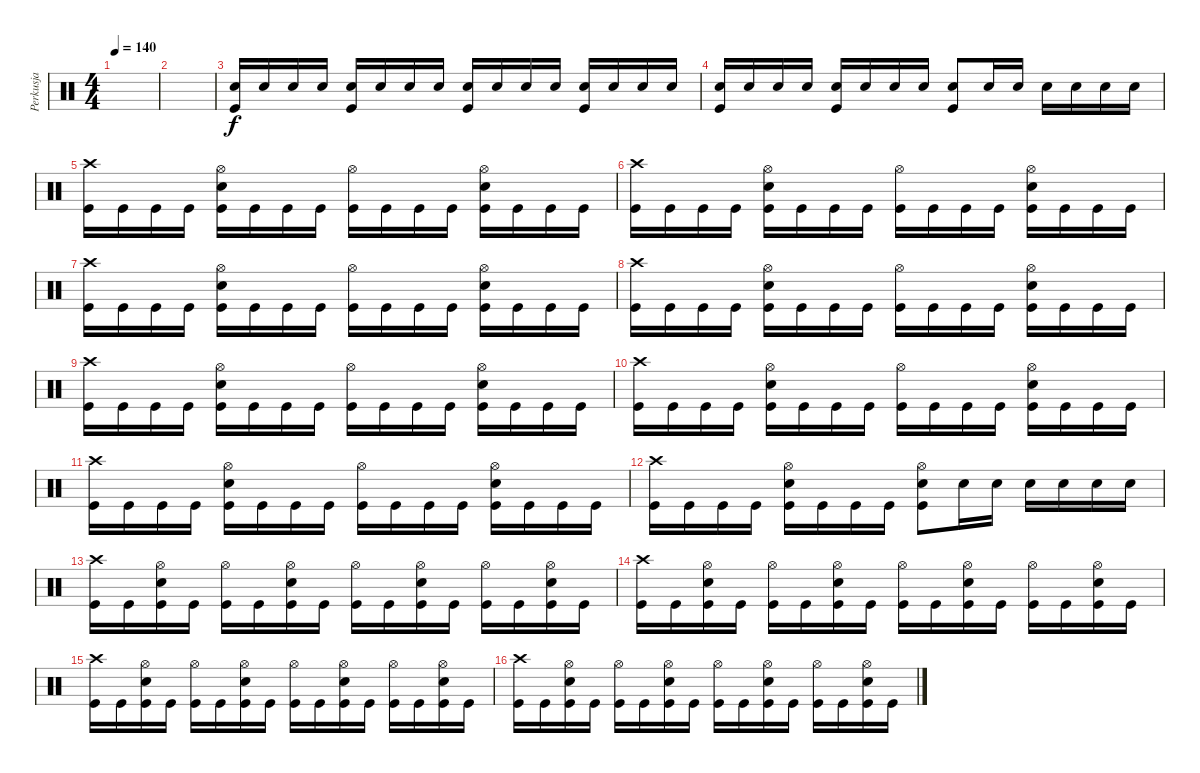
\track ("Perkusja" "Perkusja") {instrument percussion}
\staff {score}
\articulation defaults
\ts (4 4)
\tempo 140
\clef neutral
\ks c
|
|
("Electric Snare (hit)" "Kick (hit)").16 "Electric Snare (hit)".16 "Electric Snare (hit)".16 "Electric Snare (hit)".16 ("Electric Snare (hit)" "Kick (hit)").16 "Electric Snare (hit)".16 "Electric Snare (hit)".16 "Electric Snare (hit)".16 ("Electric Snare (hit)" "Kick (hit)").16 "Electric Snare (hit)".16 "Electric Snare (hit)".16 "Electric Snare (hit)".16 ("Electric Snare (hit)" "Kick (hit)").16 "Electric Snare (hit)".16 "Electric Snare (hit)".16 "Electric Snare (hit)".16 |
("Electric Snare (hit)" "Kick (hit)").16 "Electric Snare (hit)".16 "Electric Snare (hit)".16 "Electric Snare (hit)".16 ("Electric Snare (hit)" "Kick (hit)").16 "Electric Snare (hit)".16 "Electric Snare (hit)".16 "Electric Snare (hit)".16 ("Electric Snare (hit)" "Kick (hit)").8 "Electric Snare (hit)".16 "Electric Snare (hit)".16 "Electric Snare (hit)".16 "Electric Snare (hit)".16 "Electric Snare (hit)".16 "Electric Snare (hit)".16 |
("Crash high (hit)" "Kick (hit)").16 "Kick (hit)".16 "Kick (hit)".16 "Kick (hit)".16 ("Hi-Hat (open)" "Electric Snare (hit)" "Kick (hit)").16 "Kick (hit)".16 "Kick (hit)".16 "Kick (hit)".16 ("Hi-Hat (open)" "Kick (hit)").16 "Kick (hit)".16 "Kick (hit)".16 "Kick (hit)".16 ("Hi-Hat (open)" "Electric Snare (hit)" "Kick (hit)").16 "Kick (hit)".16 "Kick (hit)".16 "Kick (hit)".16 |
("Crash high (hit)" "Kick (hit)").16 "Kick (hit)".16 "Kick (hit)".16 "Kick (hit)".16 ("Hi-Hat (open)" "Electric Snare (hit)" "Kick (hit)").16 "Kick (hit)".16 "Kick (hit)".16 "Kick (hit)".16 ("Hi-Hat (open)" "Kick (hit)").16 "Kick (hit)".16 "Kick (hit)".16 "Kick (hit)".16 ("Hi-Hat (open)" "Electric Snare (hit)" "Kick (hit)").16 "Kick (hit)".16 "Kick (hit)".16 "Kick (hit)".16 |
("Crash high (hit)" "Kick (hit)").16 "Kick (hit)".16 "Kick (hit)".16 "Kick (hit)".16 ("Hi-Hat (open)" "Electric Snare (hit)" "Kick (hit)").16 "Kick (hit)".16 "Kick (hit)".16 "Kick (hit)".16 ("Hi-Hat (open)" "Kick (hit)").16 "Kick (hit)".16 "Kick (hit)".16 "Kick (hit)".16 ("Hi-Hat (open)" "Electric Snare (hit)" "Kick (hit)").16 "Kick (hit)".16 "Kick (hit)".16 "Kick (hit)".16 |
("Crash high (hit)" "Kick (hit)").16 "Kick (hit)".16 "Kick (hit)".16 "Kick (hit)".16 ("Hi-Hat (open)" "Electric Snare (hit)" "Kick (hit)").16 "Kick (hit)".16 "Kick (hit)".16 "Kick (hit)".16 ("Hi-Hat (open)" "Kick (hit)").16 "Kick (hit)".16 "Kick (hit)".16 "Kick (hit)".16 ("Hi-Hat (open)" "Electric Snare (hit)" "Kick (hit)").16 "Kick (hit)".16 "Kick (hit)".16 "Kick (hit)".16 |
("Crash high (hit)" "Kick (hit)").16 "Kick (hit)".16 "Kick (hit)".16 "Kick (hit)".16 ("Hi-Hat (open)" "Electric Snare (hit)" "Kick (hit)").16 "Kick (hit)".16 "Kick (hit)".16 "Kick (hit)".16 ("Hi-Hat (open)" "Kick (hit)").16 "Kick (hit)".16 "Kick (hit)".16 "Kick (hit)".16 ("Hi-Hat (open)" "Electric Snare (hit)" "Kick (hit)").16 "Kick (hit)".16 "Kick (hit)".16 "Kick (hit)".16 |
("Crash high (hit)" "Kick (hit)").16 "Kick (hit)".16 "Kick (hit)".16 "Kick (hit)".16 ("Hi-Hat (open)" "Electric Snare (hit)" "Kick (hit)").16 "Kick (hit)".16 "Kick (hit)".16 "Kick (hit)".16 ("Hi-Hat (open)" "Kick (hit)").16 "Kick (hit)".16 "Kick (hit)".16 "Kick (hit)".16 ("Hi-Hat (open)" "Electric Snare (hit)" "Kick (hit)").16 "Kick (hit)".16 "Kick (hit)".16 "Kick (hit)".16 |
("Crash high (hit)" "Kick (hit)").16 "Kick (hit)".16 "Kick (hit)".16 "Kick (hit)".16 ("Hi-Hat (open)" "Electric Snare (hit)" "Kick (hit)").16 "Kick (hit)".16 "Kick (hit)".16 "Kick (hit)".16 ("Hi-Hat (open)" "Kick (hit)").16 "Kick (hit)".16 "Kick (hit)".16 "Kick (hit)".16 ("Hi-Hat (open)" "Electric Snare (hit)" "Kick (hit)").16 "Kick (hit)".16 "Kick (hit)".16 "Kick (hit)".16 |
("Crash high (hit)" "Kick (hit)").16 "Kick (hit)".16 "Kick (hit)".16 "Kick (hit)".16 ("Hi-Hat (open)" "Electric Snare (hit)" "Kick (hit)").16 "Kick (hit)".16 "Kick (hit)".16 "Kick (hit)".16 ("Hi-Hat (open)" "Electric Snare (hit)" "Kick (hit)").8 "Electric Snare (hit)".16 "Electric Snare (hit)".16 "Electric Snare (hit)".16 "Electric Snare (hit)".16 "Electric Snare (hit)".16 "Electric Snare (hit)".16 |
("Crash high (hit)" "Kick (hit)").16 "Kick (hit)".16 ("Hi-Hat (open)" "Electric Snare (hit)" "Kick (hit)").16 "Kick (hit)".16 ("Hi-Hat (open)" "Kick (hit)").16 "Kick (hit)".16 ("Hi-Hat (open)" "Electric Snare (hit)" "Kick (hit)").16 "Kick (hit)".16 ("Hi-Hat (open)" "Kick (hit)").16 "Kick (hit)".16 ("Hi-Hat (open)" "Electric Snare (hit)" "Kick (hit)").16 "Kick (hit)".16 ("Hi-Hat (open)" "Kick (hit)").16 "Kick (hit)".16 ("Hi-Hat (open)" "Electric Snare (hit)" "Kick (hit)").16 "Kick (hit)".16 |
("Crash high (hit)" "Kick (hit)").16 "Kick (hit)".16 ("Hi-Hat (open)" "Electric Snare (hit)" "Kick (hit)").16 "Kick (hit)".16 ("Hi-Hat (open)" "Kick (hit)").16 "Kick (hit)".16 ("Hi-Hat (open)" "Electric Snare (hit)" "Kick (hit)").16 "Kick (hit)".16 ("Hi-Hat (open)" "Kick (hit)").16 "Kick (hit)".16 ("Hi-Hat (open)" "Electric Snare (hit)" "Kick (hit)").16 "Kick (hit)".16 ("Hi-Hat (open)" "Kick (hit)").16 "Kick (hit)".16 ("Hi-Hat (open)" "Electric Snare (hit)" "Kick (hit)").16 "Kick (hit)".16 |
("Crash high (hit)" "Kick (hit)").16 "Kick (hit)".16 ("Hi-Hat (open)" "Electric Snare (hit)" "Kick (hit)").16 "Kick (hit)".16 ("Hi-Hat (open)" "Kick (hit)").16 "Kick (hit)".16 ("Hi-Hat (open)" "Electric Snare (hit)" "Kick (hit)").16 "Kick (hit)".16 ("Hi-Hat (open)" "Kick (hit)").16 "Kick (hit)".16 ("Hi-Hat (open)" "Electric Snare (hit)" "Kick (hit)").16 "Kick (hit)".16 ("Hi-Hat (open)" "Kick (hit)").16 "Kick (hit)".16 ("Hi-Hat (open)" "Electric Snare (hit)" "Kick (hit)").16 "Kick (hit)".16 |
("Crash high (hit)" "Kick (hit)").16 "Kick (hit)".16 ("Hi-Hat (open)" "Electric Snare (hit)" "Kick (hit)").16 "Kick (hit)".16 ("Hi-Hat (open)" "Kick (hit)").16 "Kick (hit)".16 ("Hi-Hat (open)" "Electric Snare (hit)" "Kick (hit)").16 "Kick (hit)".16 ("Hi-Hat (open)" "Kick (hit)").16 "Kick (hit)".16 ("Hi-Hat (open)" "Electric Snare (hit)" "Kick (hit)").16 "Kick (hit)".16 ("Hi-Hat (open)" "Kick (hit)").16 "Kick (hit)".16 ("Hi-Hat (open)" "Electric Snare (hit)" "Kick (hit)").16 "Kick (hit)".16
